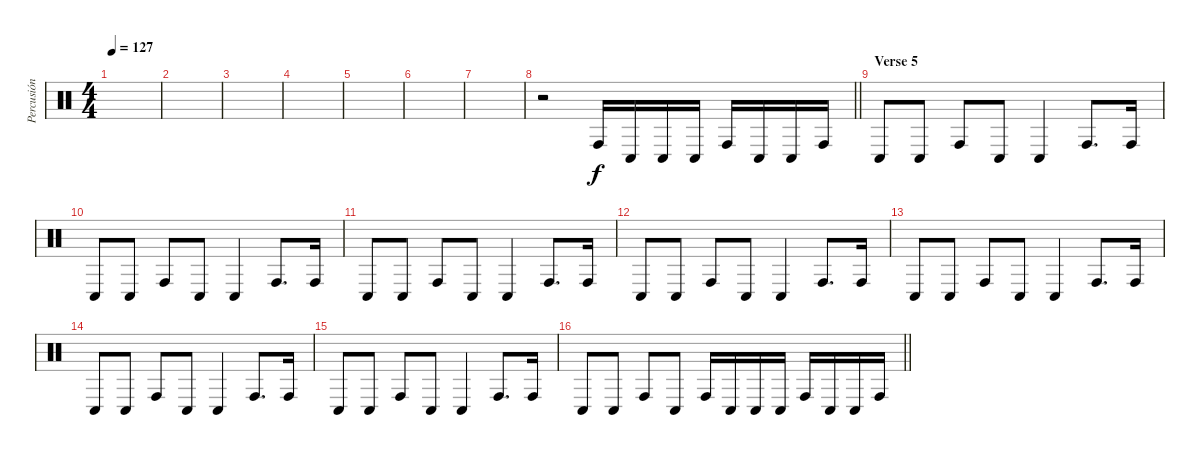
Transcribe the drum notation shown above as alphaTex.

\track ("Percusión" "Percusión") {instrument percussion}
\staff {score}
\articulation defaults
\ts (4 4)
\tempo 127
\clef neutral
\ks c
|
|
|
|
|
|
|
\barLineRight lightlight
r.2 "Conga high (hit)".16 "Conga low (hit)".16 "Conga low (hit)".16 "Conga low (hit)".16 "Conga high (hit)".16 "Conga low (hit)".16 "Conga low (hit)".16 "Conga high (hit)".16 |
\section ("" "Verse 5")
"Conga low (hit)".8 "Conga low (hit)".8 "Conga high (hit)".8 "Conga low (hit)".8 "Conga low (hit)".4 "Conga high (hit)".8{d} "Conga high (hit)".16 |
"Conga low (hit)".8 "Conga low (hit)".8 "Conga high (hit)".8 "Conga low (hit)".8 "Conga low (hit)".4 "Conga high (hit)".8{d} "Conga high (hit)".16 |
"Conga low (hit)".8 "Conga low (hit)".8 "Conga high (hit)".8 "Conga low (hit)".8 "Conga low (hit)".4 "Conga high (hit)".8{d} "Conga high (hit)".16 |
"Conga low (hit)".8 "Conga low (hit)".8 "Conga high (hit)".8 "Conga low (hit)".8 "Conga low (hit)".4 "Conga high (hit)".8{d} "Conga high (hit)".16 |
"Conga low (hit)".8 "Conga low (hit)".8 "Conga high (hit)".8 "Conga low (hit)".8 "Conga low (hit)".4 "Conga high (hit)".8{d} "Conga high (hit)".16 |
"Conga low (hit)".8 "Conga low (hit)".8 "Conga high (hit)".8 "Conga low (hit)".8 "Conga low (hit)".4 "Conga high (hit)".8{d} "Conga high (hit)".16 |
"Conga low (hit)".8 "Conga low (hit)".8 "Conga high (hit)".8 "Conga low (hit)".8 "Conga low (hit)".4 "Conga high (hit)".8{d} "Conga high (hit)".16 |
\barLineRight lightlight "Conga low (hit)".8 "Conga low (hit)".8 "Conga high (hit)".8 "Conga low (hit)".8 "Conga high (hit)".16 "Conga low (hit)".16 "Conga low (hit)".16 "Conga low (hit)".16 "Conga high (hit)".16 "Conga low (hit)".16 "Conga low (hit)".16 "Conga high (hit)".16
